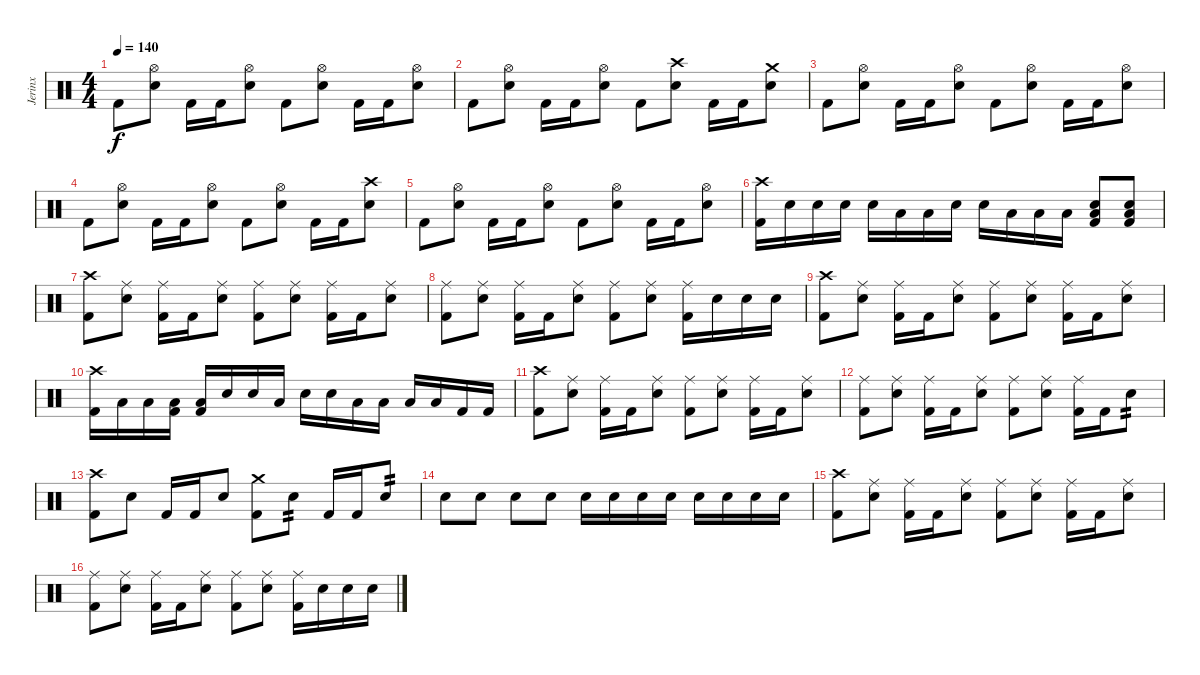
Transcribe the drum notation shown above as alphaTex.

\track ("Jerinx" "Jerinx") {instrument percussion}
\staff {score}
\articulation defaults
\ts (4 4)
\tempo 140
\clef neutral
\ks c "Kick (hit) 2".8{dy f}
("Hi-Hat (open)" "Electric Snare (hit)").8 "Kick (hit) 2".16 "Kick (hit) 2".16 ("Hi-Hat (open)" "Electric Snare (hit)").8 "Kick (hit) 2".8 ("Hi-Hat (open)" "Electric Snare (hit)").8 "Kick (hit) 2".16 "Kick (hit) 2".16 ("Hi-Hat (open)" "Electric Snare (hit)").8 |
"Kick (hit) 2".8 ("Hi-Hat (open)" "Electric Snare (hit)").8 "Kick (hit) 2".16 "Kick (hit) 2".16 ("Hi-Hat (open)" "Electric Snare (hit)").8 "Kick (hit) 2".8 ("Crash high (hit)" "Electric Snare (hit)").8 "Kick (hit) 2".16 "Kick (hit) 2".16 ("Crash medium (hit)" "Electric Snare (hit)").8 |
"Kick (hit) 2".8 ("Hi-Hat (open)" "Electric Snare (hit)").8 "Kick (hit) 2".16 "Kick (hit) 2".16 ("Hi-Hat (open)" "Electric Snare (hit)").8 "Kick (hit) 2".8 ("Hi-Hat (open)" "Electric Snare (hit)").8 "Kick (hit) 2".16 "Kick (hit) 2".16 ("Hi-Hat (open)" "Electric Snare (hit)").8 |
"Kick (hit) 2".8 ("Hi-Hat (open)" "Electric Snare (hit)").8 "Kick (hit) 2".16 "Kick (hit) 2".16 ("Hi-Hat (open)" "Electric Snare (hit)").8 "Kick (hit) 2".8 ("Hi-Hat (open)" "Electric Snare (hit)").8 "Kick (hit) 2".16 "Kick (hit) 2".16 ("Crash high (hit)" "Electric Snare (hit)").8 |
"Kick (hit) 2".8 ("Hi-Hat (open)" "Electric Snare (hit)").8 "Kick (hit) 2".16 "Kick (hit) 2".16 ("Hi-Hat (open)" "Electric Snare (hit)").8 "Kick (hit) 2".8 ("Hi-Hat (open)" "Electric Snare (hit)").8 "Kick (hit) 2".16 "Kick (hit) 2".16 ("Hi-Hat (open)" "Electric Snare (hit)").8 |
("Crash high (hit)" "Kick (hit) 2").16 "Electric Snare (hit)".16 "Electric Snare (hit)".16 "Electric Snare (hit)".16 "Electric Snare (hit)".16 "Low Tom (hit)".16 "Low Tom (hit)".16 "Electric Snare (hit)".16 "Electric Snare (hit)".16 "Low Tom (hit)".16 "Low Tom (hit)".16 "Low Tom (hit)".16 ("Low Floor Tom (hit)" "Electric Snare (hit)" "Kick (hit) 2").8 ("Low Floor Tom (hit)" "Electric Snare (hit)" "Kick (hit) 2").8 |
("Crash high (hit)" "Kick (hit) 2").8 ("Ride (middle)" "Electric Snare (hit)").8 ("Ride (middle)" "Kick (hit) 2").16 "Kick (hit) 2".16 ("Ride (middle)" "Electric Snare (hit)").8 ("Ride (middle)" "Kick (hit) 2").8 ("Ride (middle)" "Electric Snare (hit)").8 ("Ride (middle)" "Kick (hit) 2").16 "Kick (hit) 2".16 ("Ride (middle)" "Electric Snare (hit)").8 |
("Ride (middle)" "Kick (hit) 2").8 ("Ride (middle)" "Electric Snare (hit)").8 ("Ride (middle)" "Kick (hit) 2").16 "Kick (hit) 2".16 ("Ride (middle)" "Electric Snare (hit)").8 ("Ride (middle)" "Kick (hit) 2").8 ("Ride (middle)" "Electric Snare (hit)").8 ("Ride (middle)" "Kick (hit) 2").16 "Electric Snare (hit)".16 "Electric Snare (hit)".16 "Electric Snare (hit)".16 |
("Crash high (hit)" "Kick (hit) 2").8 ("Ride (middle)" "Electric Snare (hit)").8 ("Ride (middle)" "Kick (hit) 2").16 "Kick (hit) 2".16 ("Ride (middle)" "Electric Snare (hit)").8 ("Ride (middle)" "Kick (hit) 2").8 ("Ride (middle)" "Electric Snare (hit)").8 ("Ride (middle)" "Kick (hit) 2").16 "Kick (hit) 2".16 ("Ride (middle)" "Electric Snare (hit)").8 |
("Crash high (hit)" "Kick (hit) 2").16 "Low Tom (hit)".16 "Low Tom (hit)".16 ("Low Floor Tom (hit)" "Kick (hit) 2").16 ("Low Floor Tom (hit)" "Kick (hit) 2").16 "Electric Snare (hit)".16 "Electric Snare (hit)".16 "Low Tom (hit)".16 "Electric Snare (hit)".16 "Electric Snare (hit)".16 "Low Tom (hit)".16 "Low Tom (hit)".16 "Low Floor Tom (hit)".16 "Low Floor Tom (hit)".16 "Kick (hit) 2".16 "Kick (hit) 2".16 |
("Crash high (hit)" "Kick (hit) 2").8 ("Ride (middle)" "Electric Snare (hit)").8 ("Ride (middle)" "Kick (hit) 2").16 "Kick (hit) 2".16 ("Ride (middle)" "Electric Snare (hit)").8 ("Ride (middle)" "Kick (hit) 2").8 ("Ride (middle)" "Electric Snare (hit)").8 ("Ride (middle)" "Kick (hit) 2").16 "Kick (hit) 2".16 ("Ride (middle)" "Electric Snare (hit)").8 |
("Ride (middle)" "Kick (hit) 2").8 ("Ride (middle)" "Electric Snare (hit)").8 ("Ride (middle)" "Kick (hit) 2").16 "Kick (hit) 2".16 ("Ride (middle)" "Electric Snare (hit)").8 ("Ride (middle)" "Kick (hit) 2").8 ("Ride (middle)" "Electric Snare (hit)").8 ("Ride (middle)" "Kick (hit) 2").16 "Kick (hit) 2".16 "Electric Snare (hit)".8{tp 2} |
("Crash high (hit)" "Kick (hit) 2").8 "Electric Snare (hit)".8 "Kick (hit) 2".16 "Kick (hit) 2".16 "Electric Snare (hit)".8 ("Crash medium (hit)" "Kick (hit) 2").8 "Electric Snare (hit)".8{tp 2} "Kick (hit) 2".16 "Kick (hit) 2".16 "Electric Snare (hit)".8{tp 2} |
"Electric Snare (hit)".8 "Electric Snare (hit)".8 "Electric Snare (hit)".8 "Electric Snare (hit)".8 "Electric Snare (hit)".16 "Electric Snare (hit)".16 "Electric Snare (hit)".16 "Electric Snare (hit)".16 "Electric Snare (hit)".16 "Electric Snare (hit)".16 "Electric Snare (hit)".16 "Electric Snare (hit)".16 |
("Crash high (hit)" "Kick (hit) 2").8 ("Ride (middle)" "Electric Snare (hit)").8 ("Ride (middle)" "Kick (hit) 2").16 "Kick (hit) 2".16 ("Ride (middle)" "Electric Snare (hit)").8 ("Ride (middle)" "Kick (hit) 2").8 ("Ride (middle)" "Electric Snare (hit)").8 ("Ride (middle)" "Kick (hit) 2").16 "Kick (hit) 2".16 ("Ride (middle)" "Electric Snare (hit)").8 |
("Ride (middle)" "Kick (hit) 2").8 ("Ride (middle)" "Electric Snare (hit)").8 ("Ride (middle)" "Kick (hit) 2").16 "Kick (hit) 2".16 ("Ride (middle)" "Electric Snare (hit)").8 ("Ride (middle)" "Kick (hit) 2").8 ("Ride (middle)" "Electric Snare (hit)").8 ("Ride (middle)" "Kick (hit) 2").16 "Electric Snare (hit)".16 "Electric Snare (hit)".16 "Electric Snare (hit)".16
